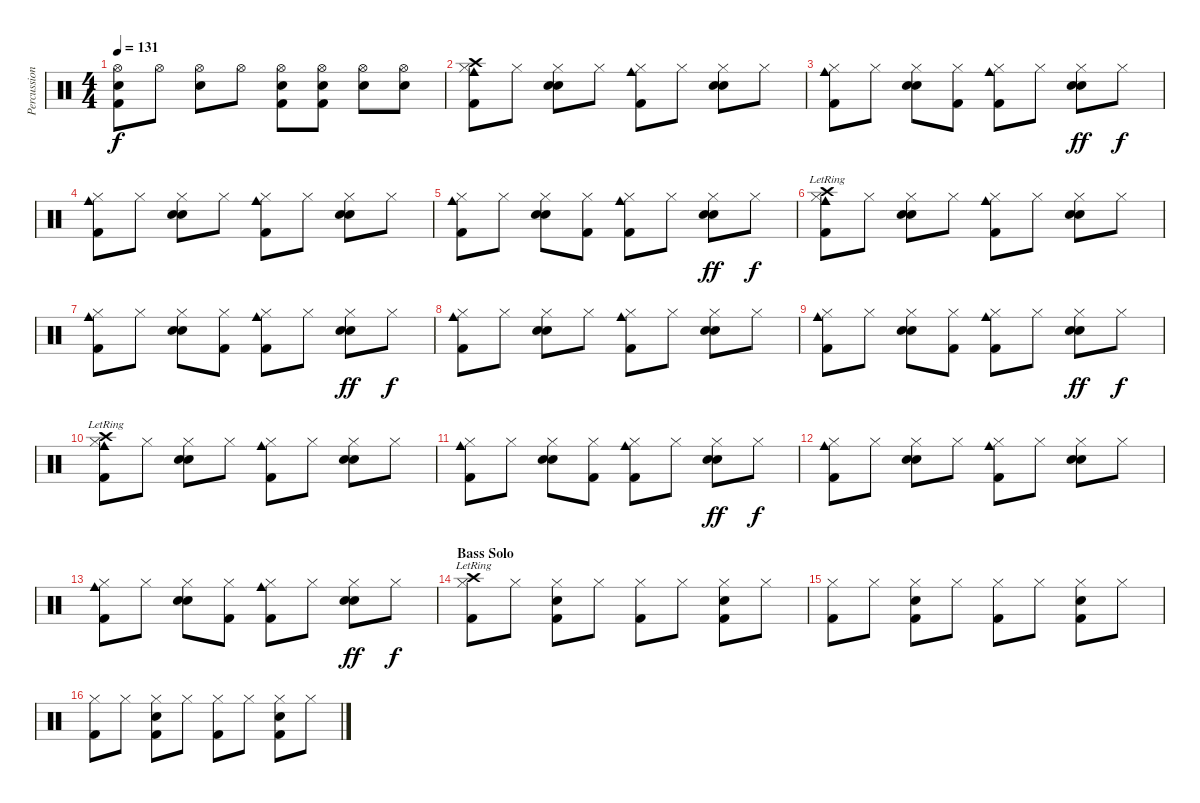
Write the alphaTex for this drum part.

\track ("Percussion" "Percussion") {instrument percussion}
\staff {score}
\articulation defaults
\ts (4 4)
\tempo 131
\clef neutral
\ks c
("Hi-Hat (open)" "Electric Snare (hit)" "Kick (hit) 2").8{dy f} "Hi-Hat (open)".8 ("Hi-Hat (open)" "Electric Snare (hit)").8 "Hi-Hat (open)".8 ("Hi-Hat (open)" "Electric Snare (hit)" "Kick (hit) 2").8 ("Hi-Hat (open)" "Electric Snare (hit)" "Kick (hit) 2").8 ("Hi-Hat (open)" "Electric Snare (hit)").8 ("Hi-Hat (open)" "Electric Snare (hit)").8 |
("Crash high (hit)" "Hi-Hat (closed)" "Cowbell medium (hit)" "Kick (hit) 2").8 "Hi-Hat (closed)".8 ("Hand Clap (hit)" "Hi-Hat (closed)" "Electric Snare (hit)").8 "Hi-Hat (closed)".8 ("Hi-Hat (closed)" "Cowbell medium (hit)" "Kick (hit) 2").8 "Hi-Hat (closed)".8 ("Hand Clap (hit)" "Hi-Hat (closed)" "Electric Snare (hit)").8 "Hi-Hat (closed)".8 |
("Hi-Hat (closed)" "Cowbell medium (hit)" "Kick (hit) 2").8 "Hi-Hat (closed)".8 ("Hand Clap (hit)" "Hi-Hat (closed)" "Electric Snare (hit)").8 ("Hi-Hat (closed)" "Kick (hit) 2").8 ("Hi-Hat (closed)" "Cowbell medium (hit)" "Kick (hit) 2").8 "Hi-Hat (closed)".8 ("Hand Clap (hit)" "Hi-Hat (closed)" "Electric Snare (hit)").8{dy ff} "Hi-Hat (closed)".8{dy f} |
("Hi-Hat (closed)" "Cowbell medium (hit)" "Kick (hit) 2").8 "Hi-Hat (closed)".8 ("Hand Clap (hit)" "Hi-Hat (closed)" "Electric Snare (hit)").8 "Hi-Hat (closed)".8 ("Hi-Hat (closed)" "Cowbell medium (hit)" "Kick (hit) 2").8 "Hi-Hat (closed)".8 ("Hand Clap (hit)" "Hi-Hat (closed)" "Electric Snare (hit)").8 "Hi-Hat (closed)".8 |
("Hi-Hat (closed)" "Cowbell medium (hit)" "Kick (hit) 2").8 "Hi-Hat (closed)".8 ("Hand Clap (hit)" "Hi-Hat (closed)" "Electric Snare (hit)").8 ("Hi-Hat (closed)" "Kick (hit) 2").8 ("Hi-Hat (closed)" "Cowbell medium (hit)" "Kick (hit) 2").8 "Hi-Hat (closed)".8 ("Hand Clap (hit)" "Hi-Hat (closed)" "Electric Snare (hit)").8{dy ff} "Hi-Hat (closed)".8{dy f} |
("Hi-Hat (closed)" "Crash high (hit)"{lr} "Cowbell medium (hit)" "Kick (hit) 2").8 "Hi-Hat (closed)".8 ("Hand Clap (hit)" "Hi-Hat (closed)" "Electric Snare (hit)").8 "Hi-Hat (closed)".8 ("Hi-Hat (closed)" "Cowbell medium (hit)" "Kick (hit) 2").8 "Hi-Hat (closed)".8 ("Hand Clap (hit)" "Hi-Hat (closed)" "Electric Snare (hit)").8 "Hi-Hat (closed)".8 |
("Hi-Hat (closed)" "Cowbell medium (hit)" "Kick (hit) 2").8 "Hi-Hat (closed)".8 ("Hand Clap (hit)" "Hi-Hat (closed)" "Electric Snare (hit)").8 ("Hi-Hat (closed)" "Kick (hit) 2").8 ("Hi-Hat (closed)" "Cowbell medium (hit)" "Kick (hit) 2").8 "Hi-Hat (closed)".8 ("Hand Clap (hit)" "Hi-Hat (closed)" "Electric Snare (hit)").8{dy ff} "Hi-Hat (closed)".8{dy f} |
("Hi-Hat (closed)" "Cowbell medium (hit)" "Kick (hit) 2").8 "Hi-Hat (closed)".8 ("Hand Clap (hit)" "Hi-Hat (closed)" "Electric Snare (hit)").8 "Hi-Hat (closed)".8 ("Hi-Hat (closed)" "Cowbell medium (hit)" "Kick (hit) 2").8 "Hi-Hat (closed)".8 ("Hand Clap (hit)" "Hi-Hat (closed)" "Electric Snare (hit)").8 "Hi-Hat (closed)".8 |
("Hi-Hat (closed)" "Cowbell medium (hit)" "Kick (hit) 2").8 "Hi-Hat (closed)".8 ("Hand Clap (hit)" "Hi-Hat (closed)" "Electric Snare (hit)").8 ("Hi-Hat (closed)" "Kick (hit) 2").8 ("Hi-Hat (closed)" "Cowbell medium (hit)" "Kick (hit) 2").8 "Hi-Hat (closed)".8 ("Hand Clap (hit)" "Hi-Hat (closed)" "Electric Snare (hit)").8{dy ff} "Hi-Hat (closed)".8{dy f} |
("Hi-Hat (closed)" "Crash high (hit)"{lr} "Cowbell medium (hit)" "Kick (hit) 2").8 "Hi-Hat (closed)".8 ("Hand Clap (hit)" "Hi-Hat (closed)" "Electric Snare (hit)").8 "Hi-Hat (closed)".8 ("Hi-Hat (closed)" "Cowbell medium (hit)" "Kick (hit) 2").8 "Hi-Hat (closed)".8 ("Hand Clap (hit)" "Hi-Hat (closed)" "Electric Snare (hit)").8 "Hi-Hat (closed)".8 |
("Hi-Hat (closed)" "Cowbell medium (hit)" "Kick (hit) 2").8 "Hi-Hat (closed)".8 ("Hand Clap (hit)" "Hi-Hat (closed)" "Electric Snare (hit)").8 ("Hi-Hat (closed)" "Kick (hit) 2").8 ("Hi-Hat (closed)" "Cowbell medium (hit)" "Kick (hit) 2").8 "Hi-Hat (closed)".8 ("Hand Clap (hit)" "Hi-Hat (closed)" "Electric Snare (hit)").8{dy ff} "Hi-Hat (closed)".8{dy f} |
("Hi-Hat (closed)" "Cowbell medium (hit)" "Kick (hit) 2").8 "Hi-Hat (closed)".8 ("Hand Clap (hit)" "Hi-Hat (closed)" "Electric Snare (hit)").8 "Hi-Hat (closed)".8 ("Hi-Hat (closed)" "Cowbell medium (hit)" "Kick (hit) 2").8 "Hi-Hat (closed)".8 ("Hand Clap (hit)" "Hi-Hat (closed)" "Electric Snare (hit)").8 "Hi-Hat (closed)".8 |
("Hi-Hat (closed)" "Cowbell medium (hit)" "Kick (hit) 2").8 "Hi-Hat (closed)".8 ("Hand Clap (hit)" "Hi-Hat (closed)" "Electric Snare (hit)").8 ("Hi-Hat (closed)" "Kick (hit) 2").8 ("Hi-Hat (closed)" "Cowbell medium (hit)" "Kick (hit) 2").8 "Hi-Hat (closed)".8 ("Hand Clap (hit)" "Hi-Hat (closed)" "Electric Snare (hit)").8{dy ff} "Hi-Hat (closed)".8{dy f} |
\section ("" "Bass Solo")
("Crash high (hit)"{lr} "Hi-Hat (closed)" "Kick (hit) 2").8{volume 9} "Hi-Hat (closed)".8 ("Hand Clap (hit)" "Hi-Hat (closed)" "Kick (hit) 2").8 "Hi-Hat (closed)".8 ("Hi-Hat (closed)" "Kick (hit) 2").8 "Hi-Hat (closed)".8 ("Hand Clap (hit)" "Hi-Hat (closed)" "Kick (hit) 2").8 "Hi-Hat (closed)".8 |
("Hi-Hat (closed)" "Kick (hit) 2").8 "Hi-Hat (closed)".8 ("Hand Clap (hit)" "Hi-Hat (closed)" "Kick (hit) 2").8 "Hi-Hat (closed)".8 ("Hi-Hat (closed)" "Kick (hit) 2").8 "Hi-Hat (closed)".8 ("Hand Clap (hit)" "Hi-Hat (closed)" "Kick (hit) 2").8 "Hi-Hat (closed)".8 |
("Hi-Hat (closed)" "Kick (hit) 2").8 "Hi-Hat (closed)".8 ("Hand Clap (hit)" "Hi-Hat (closed)" "Kick (hit) 2").8 "Hi-Hat (closed)".8 ("Hi-Hat (closed)" "Kick (hit) 2").8 "Hi-Hat (closed)".8 ("Hand Clap (hit)" "Hi-Hat (closed)" "Kick (hit) 2").8 "Hi-Hat (closed)".8
